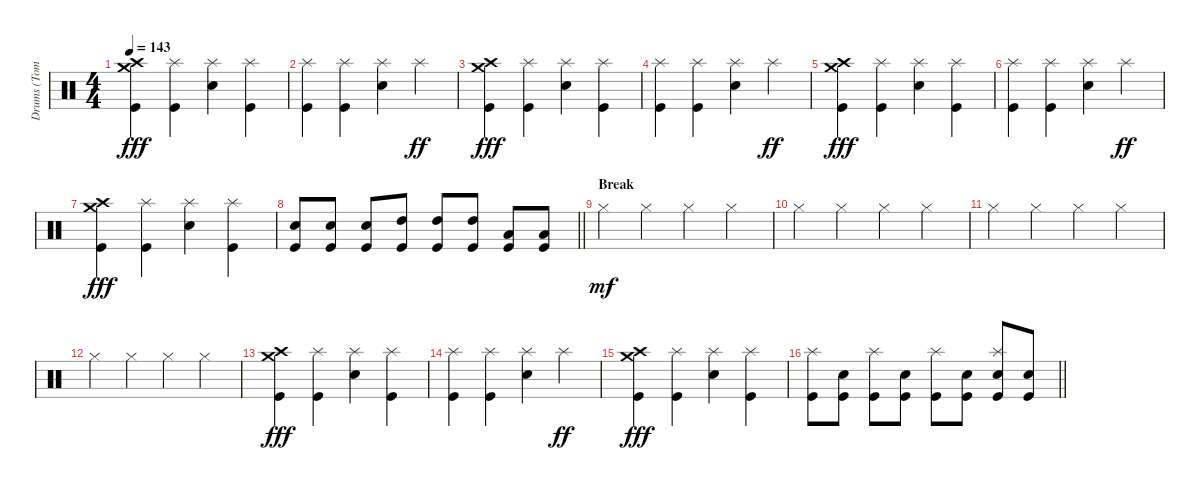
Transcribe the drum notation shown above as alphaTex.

\track ("Drums (Tommy Clufetos)" "Drums (Tom") {instrument percussion}
\staff {score}
\articulation defaults
\ts (4 4)
\tempo 143
\clef neutral
\ks c
("Crash high (hit)" "Crash medium (hit)" "Kick (hit)").4{dy fff} ("Splash (hit)" "Kick (hit)").4 ("Splash (hit)" "Electric Snare (hit)").4 ("Splash (hit)" "Kick (hit)").4 |
("Splash (hit)" "Kick (hit)").4 ("Splash (hit)" "Kick (hit)").4 ("Splash (hit)" "Electric Snare (hit)").4 "Splash (hit)".4{dy ff} |
("Crash high (hit)" "Crash medium (hit)" "Kick (hit)").4{dy fff} ("Splash (hit)" "Kick (hit)").4 ("Splash (hit)" "Electric Snare (hit)").4 ("Splash (hit)" "Kick (hit)").4 |
("Splash (hit)" "Kick (hit)").4 ("Splash (hit)" "Kick (hit)").4 ("Splash (hit)" "Electric Snare (hit)").4 "Splash (hit)".4{dy ff} |
("Crash high (hit)" "Crash medium (hit)" "Kick (hit)").4{dy fff} ("Splash (hit)" "Kick (hit)").4 ("Splash (hit)" "Electric Snare (hit)").4 ("Splash (hit)" "Kick (hit)").4 |
("Splash (hit)" "Kick (hit)").4 ("Splash (hit)" "Kick (hit)").4 ("Splash (hit)" "Electric Snare (hit)").4 "Splash (hit)".4{dy ff} |
("Crash high (hit)" "Crash medium (hit)" "Kick (hit)").4{dy fff} ("Splash (hit)" "Kick (hit)").4 ("Splash (hit)" "Electric Snare (hit)").4 ("Splash (hit)" "Kick (hit)").4 |
\barLineRight lightlight
("Electric Snare (hit)" "Kick (hit)").8 ("Electric Snare (hit)" "Kick (hit)").8 ("Electric Snare (hit)" "Kick (hit)").8 ("High Tom (hit)" "Kick (hit)").8 ("High Tom (hit)" "Kick (hit)").8 ("High Tom (hit)" "Kick (hit)").8 ("Low Tom (hit)" "Kick (hit)").8 ("Low Tom (hit)" "Kick (hit)").8 |
\section ("" "Break")
"Hi-Hat (closed)".4{dy mf} "Hi-Hat (closed)".4 "Hi-Hat (closed)".4 "Hi-Hat (closed)".4 |
"Hi-Hat (closed)".4 "Hi-Hat (closed)".4 "Hi-Hat (closed)".4 "Hi-Hat (closed)".4 |
"Hi-Hat (closed)".4 "Hi-Hat (closed)".4 "Hi-Hat (closed)".4 "Hi-Hat (closed)".4 |
"Hi-Hat (closed)".4 "Hi-Hat (closed)".4 "Hi-Hat (closed)".4 "Hi-Hat (closed)".4 |
("Crash high (hit)" "Crash medium (hit)" "Kick (hit)").4{dy fff} ("Splash (hit)" "Kick (hit)").4 ("Splash (hit)" "Electric Snare (hit)").4 ("Splash (hit)" "Kick (hit)").4 |
("Splash (hit)" "Kick (hit)").4 ("Splash (hit)" "Kick (hit)").4 ("Splash (hit)" "Electric Snare (hit)").4 "Splash (hit)".4{dy ff} |
("Crash high (hit)" "Crash medium (hit)" "Kick (hit)").4{dy fff} ("Splash (hit)" "Kick (hit)").4 ("Splash (hit)" "Electric Snare (hit)").4 ("Splash (hit)" "Kick (hit)").4 |
\barLineRight lightlight
("Splash (hit)" "Kick (hit)").8 ("Electric Snare (hit)" "Kick (hit)").8 ("Splash (hit)" "Kick (hit)").8 ("Electric Snare (hit)" "Kick (hit)").8 ("Splash (hit)" "Kick (hit)").8 ("Electric Snare (hit)" "Kick (hit)").8 ("Splash (hit)" "Electric Snare (hit)" "Kick (hit)").8 ("Electric Snare (hit)" "Kick (hit)").8
